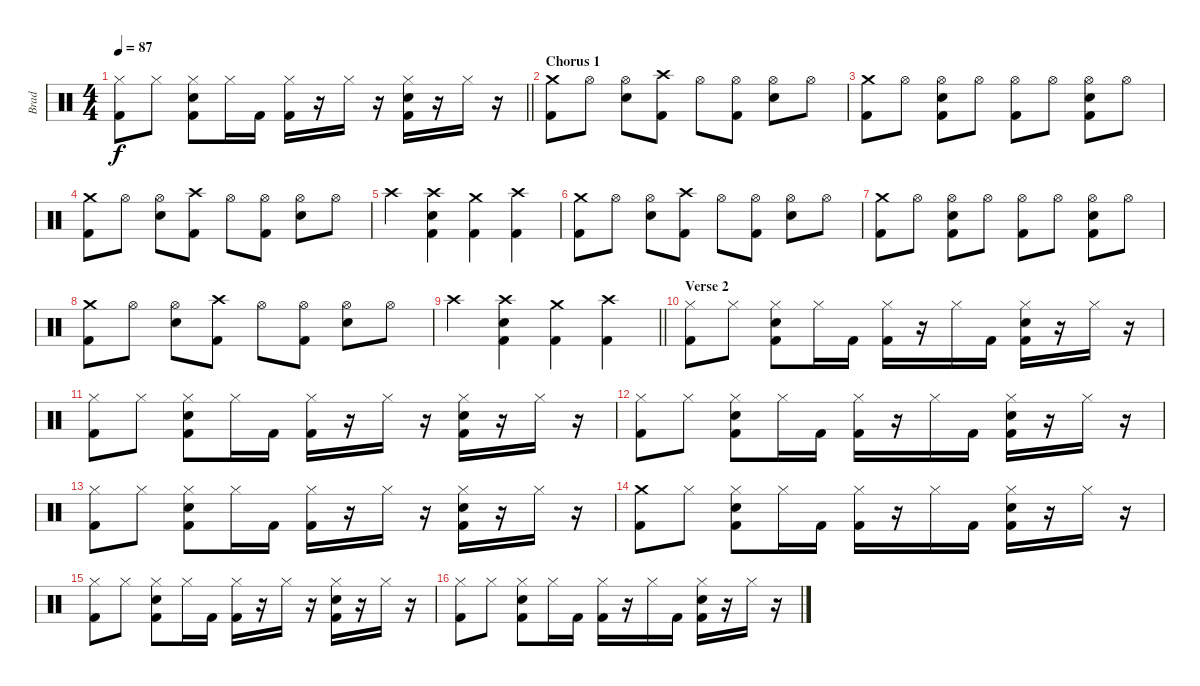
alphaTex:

\track ("Brad" "Brad") {instrument percussion}
\staff {score}
\articulation defaults
\ts (4 4)
\tempo 87
\clef neutral
\barLineRight lightlight
\ks c
("Hi-Hat (closed)" "Kick (hit) 2").8{dy f} "Hi-Hat (closed)".8 ("Hi-Hat (closed)" "Electric Snare (hit)" "Kick (hit) 2").8 "Hi-Hat (closed)".16 "Kick (hit) 2".16 ("Hi-Hat (closed)" "Kick (hit) 2").16 r.16 "Hi-Hat (closed)".16 r.16 ("Hi-Hat (closed)" "Electric Snare (hit)" "Kick (hit) 2").16 r.16 "Hi-Hat (closed)".16 r.16 |
\section ("" "Chorus 1")
("Crash medium (hit)" "Kick (hit) 2").8 "Hi-Hat (open)".8 ("Hi-Hat (open)" "Electric Snare (hit)").8 ("Crash high (hit)" "Kick (hit) 2").8 "Hi-Hat (open)".8 ("Hi-Hat (open)" "Kick (hit) 2").8 ("Hi-Hat (open)" "Electric Snare (hit)").8 "Hi-Hat (open)".8 |
("Crash medium (hit)" "Kick (hit) 2").8 "Hi-Hat (open)".8 ("Hi-Hat (open)" "Electric Snare (hit)" "Kick (hit) 2").8 "Hi-Hat (open)".8 ("Hi-Hat (open)" "Kick (hit) 2").8 "Hi-Hat (open)".8 ("Hi-Hat (open)" "Electric Snare (hit)" "Kick (hit) 2").8 "Hi-Hat (open)".8 |
("Crash medium (hit)" "Kick (hit) 2").8 "Hi-Hat (open)".8 ("Hi-Hat (open)" "Electric Snare (hit)").8 ("Crash high (hit)" "Kick (hit) 2").8 "Hi-Hat (open)".8 ("Hi-Hat (open)" "Kick (hit) 2").8 ("Hi-Hat (open)" "Electric Snare (hit)").8 "Hi-Hat (open)".8 |
"Crash high (hit)".4 ("Crash high (hit)" "Electric Snare (hit)" "Kick (hit) 2").4 ("Crash medium (hit)" "Kick (hit) 2").4 ("Crash high (hit)" "Kick (hit) 2").4 |
("Crash medium (hit)" "Kick (hit) 2").8 "Hi-Hat (open)".8 ("Hi-Hat (open)" "Electric Snare (hit)").8 ("Crash high (hit)" "Kick (hit) 2").8 "Hi-Hat (open)".8 ("Hi-Hat (open)" "Kick (hit) 2").8 ("Hi-Hat (open)" "Electric Snare (hit)").8 "Hi-Hat (open)".8 |
("Crash medium (hit)" "Kick (hit) 2").8 "Hi-Hat (open)".8 ("Hi-Hat (open)" "Electric Snare (hit)" "Kick (hit) 2").8 "Hi-Hat (open)".8 ("Hi-Hat (open)" "Kick (hit) 2").8 "Hi-Hat (open)".8 ("Hi-Hat (open)" "Electric Snare (hit)" "Kick (hit) 2").8 "Hi-Hat (open)".8 |
("Crash medium (hit)" "Kick (hit) 2").8 "Hi-Hat (open)".8 ("Hi-Hat (open)" "Electric Snare (hit)").8 ("Crash high (hit)" "Kick (hit) 2").8 "Hi-Hat (open)".8 ("Hi-Hat (open)" "Kick (hit) 2").8 ("Hi-Hat (open)" "Electric Snare (hit)").8 "Hi-Hat (open)".8 |
\barLineRight lightlight "Crash high (hit)".4
("Crash high (hit)" "Electric Snare (hit)" "Kick (hit) 2").4 ("Crash medium (hit)" "Kick (hit) 2").4 ("Crash high (hit)" "Kick (hit) 2").4 |
\section ("" "Verse 2")
("Hi-Hat (closed)" "Kick (hit) 2").8 "Hi-Hat (closed)".8 ("Hi-Hat (closed)" "Electric Snare (hit)" "Kick (hit) 2").8 "Hi-Hat (closed)".16 "Kick (hit) 2".16 ("Hi-Hat (closed)" "Kick (hit) 2").16 r.16 "Hi-Hat (closed)".16 "Kick (hit) 2".16 ("Hi-Hat (closed)" "Electric Snare (hit)" "Kick (hit) 2").16 r.16 "Hi-Hat (closed)".16 r.16 |
("Hi-Hat (closed)" "Kick (hit) 2").8 "Hi-Hat (closed)".8 ("Hi-Hat (closed)" "Electric Snare (hit)" "Kick (hit) 2").8 "Hi-Hat (closed)".16 "Kick (hit) 2".16 ("Hi-Hat (closed)" "Kick (hit) 2").16 r.16 "Hi-Hat (closed)".16 r.16 ("Hi-Hat (closed)" "Electric Snare (hit)" "Kick (hit) 2").16 r.16 "Hi-Hat (closed)".16 r.16 |
("Hi-Hat (closed)" "Kick (hit) 2").8 "Hi-Hat (closed)".8 ("Hi-Hat (closed)" "Electric Snare (hit)" "Kick (hit) 2").8 "Hi-Hat (closed)".16 "Kick (hit) 2".16 ("Hi-Hat (closed)" "Kick (hit) 2").16 r.16 "Hi-Hat (closed)".16 "Kick (hit) 2".16 ("Hi-Hat (closed)" "Electric Snare (hit)" "Kick (hit) 2").16 r.16 "Hi-Hat (closed)".16 r.16 |
("Hi-Hat (closed)" "Kick (hit) 2").8 "Hi-Hat (closed)".8 ("Hi-Hat (closed)" "Electric Snare (hit)" "Kick (hit) 2").8 "Hi-Hat (closed)".16 "Kick (hit) 2".16 ("Hi-Hat (closed)" "Kick (hit) 2").16 r.16 "Hi-Hat (closed)".16 r.16 ("Hi-Hat (closed)" "Electric Snare (hit)" "Kick (hit) 2").16 r.16 "Hi-Hat (closed)".16 r.16 |
("Crash medium (hit)" "Kick (hit) 2").8 "Hi-Hat (closed)".8 ("Hi-Hat (closed)" "Electric Snare (hit)" "Kick (hit) 2").8 "Hi-Hat (closed)".16 "Kick (hit) 2".16 ("Hi-Hat (closed)" "Kick (hit) 2").16 r.16 "Hi-Hat (closed)".16 "Kick (hit) 2".16 ("Hi-Hat (closed)" "Electric Snare (hit)" "Kick (hit) 2").16 r.16 "Hi-Hat (closed)".16 r.16 |
("Hi-Hat (closed)" "Kick (hit) 2").8 "Hi-Hat (closed)".8 ("Hi-Hat (closed)" "Electric Snare (hit)" "Kick (hit) 2").8 "Hi-Hat (closed)".16 "Kick (hit) 2".16 ("Hi-Hat (closed)" "Kick (hit) 2").16 r.16 "Hi-Hat (closed)".16 r.16 ("Hi-Hat (closed)" "Electric Snare (hit)" "Kick (hit) 2").16 r.16 "Hi-Hat (closed)".16 r.16 |
("Hi-Hat (closed)" "Kick (hit) 2").8 "Hi-Hat (closed)".8 ("Hi-Hat (closed)" "Electric Snare (hit)" "Kick (hit) 2").8 "Hi-Hat (closed)".16 "Kick (hit) 2".16 ("Hi-Hat (closed)" "Kick (hit) 2").16 r.16 "Hi-Hat (closed)".16 "Kick (hit) 2".16 ("Hi-Hat (closed)" "Electric Snare (hit)" "Kick (hit) 2").16 r.16 "Hi-Hat (closed)".16 r.16
